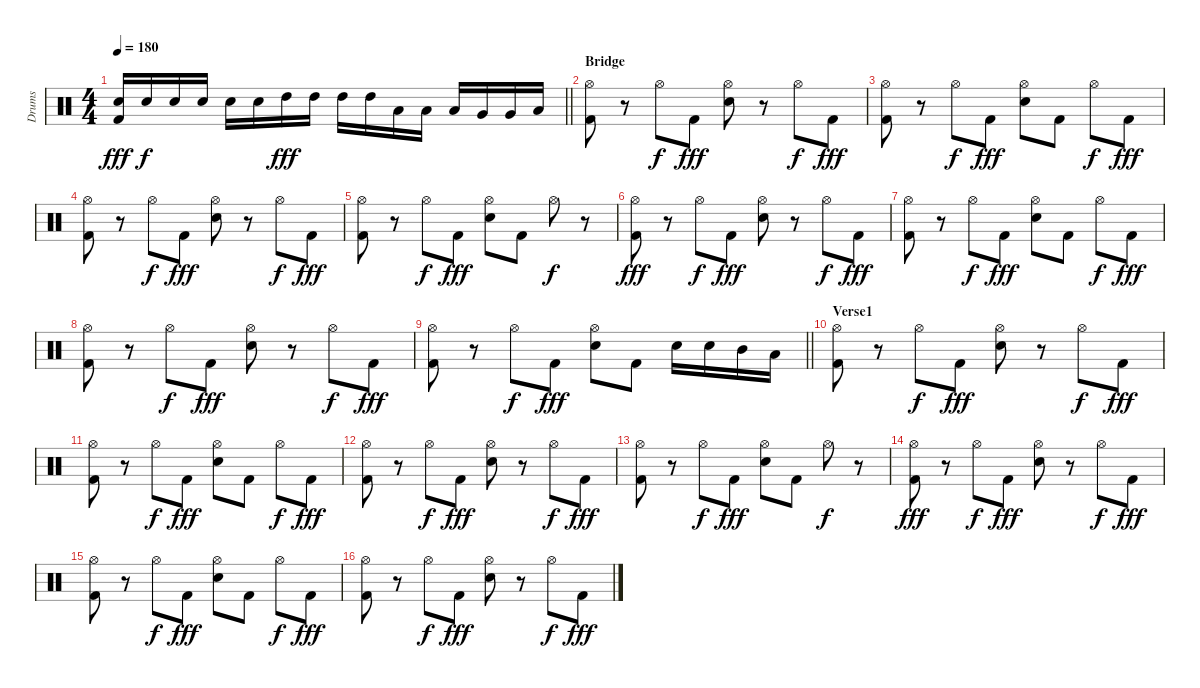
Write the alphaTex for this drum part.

\track ("Drums" "Drums") {instrument percussion}
\staff {score}
\articulation defaults
\ts (4 4)
\tempo 180
\clef neutral
\barLineRight lightlight
\ks c
("Electric Snare (hit)" "Kick (hit) 2").16{dy fff} "Electric Snare (hit)".16{dy f} "Electric Snare (hit)".16 "Electric Snare (hit)".16 "Electric Snare (hit)".16 "Electric Snare (hit)".16 "High Tom (hit)".16{dy fff} "High Tom (hit)".16 "High Tom (hit)".16 "High Tom (hit)".16 "Low Tom (hit)".16 "Low Tom (hit)".16 "Low Tom (hit)".16 "Very Low Tom (hit)".16 "Very Low Tom (hit)".16 "Low Floor Tom (hit)".16 |
\section ("" "Bridge")
("Hi-Hat (open)" "Kick (hit) 2").8 r.8 "Hi-Hat (open)".8{dy f} "Kick (hit) 2".8{dy fff} ("Hi-Hat (open)" "Electric Snare (hit)").8 r.8 "Hi-Hat (open)".8{dy f} "Kick (hit) 2".8{dy fff} |
("Hi-Hat (open)" "Kick (hit) 2").8 r.8 "Hi-Hat (open)".8{dy f} "Kick (hit) 2".8{dy fff} ("Hi-Hat (open)" "Electric Snare (hit)").8 "Kick (hit) 2".8 "Hi-Hat (open)".8{dy f} "Kick (hit) 2".8{dy fff} |
("Hi-Hat (open)" "Kick (hit) 2").8 r.8 "Hi-Hat (open)".8{dy f} "Kick (hit) 2".8{dy fff} ("Hi-Hat (open)" "Electric Snare (hit)").8 r.8 "Hi-Hat (open)".8{dy f} "Kick (hit) 2".8{dy fff} |
("Hi-Hat (open)" "Kick (hit) 2").8 r.8 "Hi-Hat (open)".8{dy f} "Kick (hit) 2".8{dy fff} ("Hi-Hat (open)" "Electric Snare (hit)").8 "Kick (hit) 2".8 "Hi-Hat (open)".8{dy f} r.8 |
("Hi-Hat (open)" "Kick (hit) 2").8{dy fff} r.8 "Hi-Hat (open)".8{dy f} "Kick (hit) 2".8{dy fff} ("Hi-Hat (open)" "Electric Snare (hit)").8 r.8 "Hi-Hat (open)".8{dy f} "Kick (hit) 2".8{dy fff} |
("Hi-Hat (open)" "Kick (hit) 2").8 r.8 "Hi-Hat (open)".8{dy f} "Kick (hit) 2".8{dy fff} ("Hi-Hat (open)" "Electric Snare (hit)").8 "Kick (hit) 2".8 "Hi-Hat (open)".8{dy f} "Kick (hit) 2".8{dy fff} |
("Hi-Hat (open)" "Kick (hit) 2").8 r.8 "Hi-Hat (open)".8{dy f} "Kick (hit) 2".8{dy fff} ("Hi-Hat (open)" "Electric Snare (hit)").8 r.8 "Hi-Hat (open)".8{dy f} "Kick (hit) 2".8{dy fff} |
\barLineRight lightlight
("Hi-Hat (open)" "Kick (hit) 2").8 r.8 "Hi-Hat (open)".8{dy f} "Kick (hit) 2".8{dy fff} ("Hi-Hat (open)" "Electric Snare (hit)").8 "Kick (hit) 2".8 "Electric Snare (hit)".16 "Electric Snare (hit)".16 "Mid Tom (hit)".16 "Low Tom (hit)".16 |
\section ("" "Verse1")
("Hi-Hat (open)" "Kick (hit) 2").8 r.8 "Hi-Hat (open)".8{dy f} "Kick (hit) 2".8{dy fff} ("Hi-Hat (open)" "Electric Snare (hit)").8 r.8 "Hi-Hat (open)".8{dy f} "Kick (hit) 2".8{dy fff} |
("Hi-Hat (open)" "Kick (hit) 2").8 r.8 "Hi-Hat (open)".8{dy f} "Kick (hit) 2".8{dy fff} ("Hi-Hat (open)" "Electric Snare (hit)").8 "Kick (hit) 2".8 "Hi-Hat (open)".8{dy f} "Kick (hit) 2".8{dy fff} |
("Hi-Hat (open)" "Kick (hit) 2").8 r.8 "Hi-Hat (open)".8{dy f} "Kick (hit) 2".8{dy fff} ("Hi-Hat (open)" "Electric Snare (hit)").8 r.8 "Hi-Hat (open)".8{dy f} "Kick (hit) 2".8{dy fff} |
("Hi-Hat (open)" "Kick (hit) 2").8 r.8 "Hi-Hat (open)".8{dy f} "Kick (hit) 2".8{dy fff} ("Hi-Hat (open)" "Electric Snare (hit)").8 "Kick (hit) 2".8 "Hi-Hat (open)".8{dy f} r.8 |
("Hi-Hat (open)" "Kick (hit) 2").8{dy fff} r.8 "Hi-Hat (open)".8{dy f} "Kick (hit) 2".8{dy fff} ("Hi-Hat (open)" "Electric Snare (hit)").8 r.8 "Hi-Hat (open)".8{dy f} "Kick (hit) 2".8{dy fff} |
("Hi-Hat (open)" "Kick (hit) 2").8 r.8 "Hi-Hat (open)".8{dy f} "Kick (hit) 2".8{dy fff} ("Hi-Hat (open)" "Electric Snare (hit)").8 "Kick (hit) 2".8 "Hi-Hat (open)".8{dy f} "Kick (hit) 2".8{dy fff} |
("Hi-Hat (open)" "Kick (hit) 2").8 r.8 "Hi-Hat (open)".8{dy f} "Kick (hit) 2".8{dy fff} ("Hi-Hat (open)" "Electric Snare (hit)").8 r.8 "Hi-Hat (open)".8{dy f} "Kick (hit) 2".8{dy fff}
